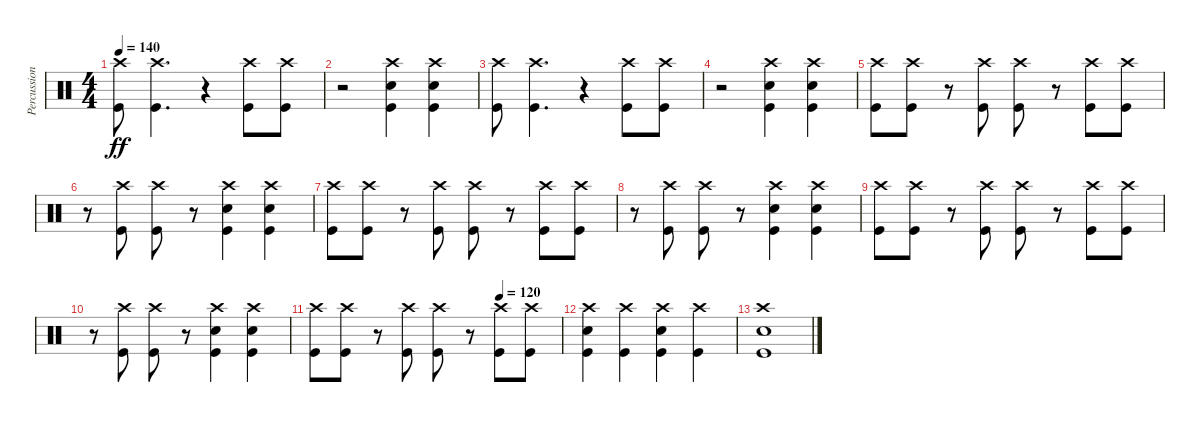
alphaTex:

\track ("Percussion" "Percussion") {instrument percussion}
\staff {score}
\articulation defaults
\ts (4 4)
\tempo 140
\clef neutral
\ks c
("Crash high (hit)" "Kick (hit)").8{dy ff} ("Crash high (hit)" "Kick (hit)").4{d} r.4 ("Crash high (hit)" "Kick (hit)").8 ("Crash high (hit)" "Kick (hit)").8 |
r.2 ("Crash high (hit)" "Kick (hit)" "Snare (hit) 2").4 ("Crash high (hit)" "Kick (hit)" "Snare (hit) 2").4 |
("Crash high (hit)" "Kick (hit)").8 ("Crash high (hit)" "Kick (hit)").4{d} r.4 ("Crash high (hit)" "Kick (hit)").8 ("Crash high (hit)" "Kick (hit)").8 |
r.2 ("Crash high (hit)" "Kick (hit)" "Snare (hit) 2").4 ("Crash high (hit)" "Kick (hit)" "Snare (hit) 2").4 |
("Crash high (hit)" "Kick (hit)").8 ("Crash high (hit)" "Kick (hit)").8 r.8 ("Crash high (hit)" "Kick (hit)").8 ("Crash high (hit)" "Kick (hit)").8 r.8 ("Crash high (hit)" "Kick (hit)").8 ("Crash high (hit)" "Kick (hit)").8 |
r.8 ("Crash high (hit)" "Kick (hit)").8 ("Crash high (hit)" "Kick (hit)").8 r.8 ("Crash high (hit)" "Kick (hit)" "Snare (hit) 2").4 ("Crash high (hit)" "Kick (hit)" "Snare (hit) 2").4 |
("Crash high (hit)" "Kick (hit)").8 ("Crash high (hit)" "Kick (hit)").8 r.8 ("Crash high (hit)" "Kick (hit)").8 ("Crash high (hit)" "Kick (hit)").8 r.8 ("Crash high (hit)" "Kick (hit)").8 ("Crash high (hit)" "Kick (hit)").8 |
r.8 ("Crash high (hit)" "Kick (hit)").8 ("Crash high (hit)" "Kick (hit)").8 r.8 ("Crash high (hit)" "Kick (hit)" "Snare (hit) 2").4 ("Crash high (hit)" "Kick (hit)" "Snare (hit) 2").4 |
("Crash high (hit)" "Kick (hit)").8 ("Crash high (hit)" "Kick (hit)").8 r.8 ("Crash high (hit)" "Kick (hit)").8 ("Crash high (hit)" "Kick (hit)").8 r.8 ("Crash high (hit)" "Kick (hit)").8 ("Crash high (hit)" "Kick (hit)").8 |
r.8 ("Crash high (hit)" "Kick (hit)").8 ("Crash high (hit)" "Kick (hit)").8 r.8 ("Crash high (hit)" "Kick (hit)" "Snare (hit) 2").4 ("Crash high (hit)" "Kick (hit)" "Snare (hit) 2").4 |
\tempo (120 0.75)
("Crash high (hit)" "Kick (hit)").8 ("Crash high (hit)" "Kick (hit)").8 r.8 ("Crash high (hit)" "Kick (hit)").8 ("Crash high (hit)" "Kick (hit)").8 r.8 ("Crash high (hit)" "Kick (hit)").8 ("Crash high (hit)" "Kick (hit)").8 |
("Crash high (hit)" "Kick (hit)" "Snare (hit) 2").4 ("Crash high (hit)" "Kick (hit)").4 ("Crash high (hit)" "Kick (hit)" "Snare (hit) 2").4 ("Crash high (hit)" "Kick (hit)").4 |
("Crash high (hit)" "Kick (hit)" "Snare (hit) 2").1
